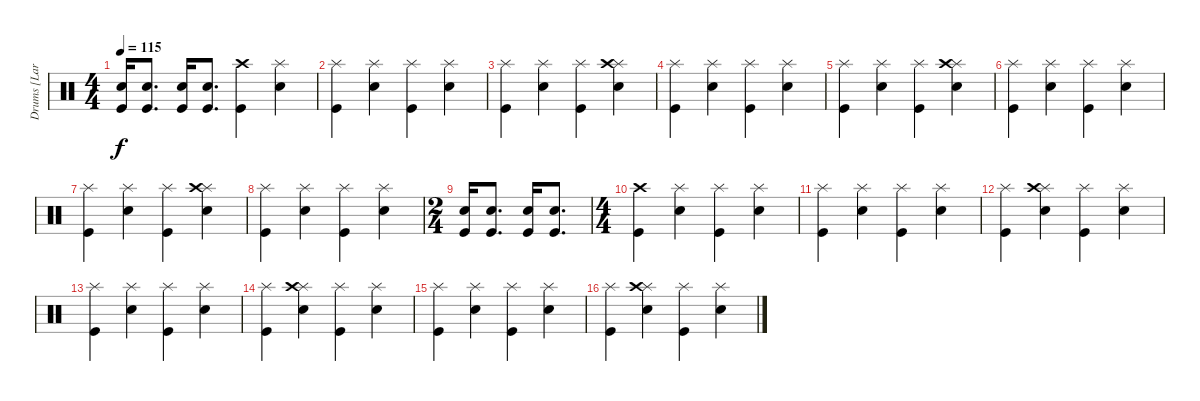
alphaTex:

\track ("Drums [Larz]" "Drums [Lar") {instrument percussion}
\staff {score}
\articulation defaults
\ts (4 4)
\tempo 115
\clef neutral
\ks c
("Kick (hit)" "Electric Snare (hit)").16{dy f} ("Kick (hit)" "Electric Snare (hit)").8{d} ("Kick (hit)" "Electric Snare (hit)").16 ("Kick (hit)" "Electric Snare (hit)").8{d} ("Crash high (hit)" "Kick (hit)").4 ("Splash (hit)" "Snare (hit) 2").4 |
("Splash (hit)" "Kick (hit)").4 ("Splash (hit)" "Snare (hit) 2").4 ("Splash (hit)" "Kick (hit)").4 ("Splash (hit)" "Snare (hit) 2").4 |
("Splash (hit)" "Kick (hit)").4 ("Splash (hit)" "Snare (hit) 2").4 ("Splash (hit)" "Kick (hit)").4 ("Splash (hit)" "Snare (hit) 2" "Crash high (hit)").4 |
("Splash (hit)" "Kick (hit)").4 ("Splash (hit)" "Snare (hit) 2").4 ("Splash (hit)" "Kick (hit)").4 ("Splash (hit)" "Snare (hit) 2").4 |
("Splash (hit)" "Kick (hit)").4 ("Splash (hit)" "Snare (hit) 2").4 ("Splash (hit)" "Kick (hit)").4 ("Splash (hit)" "Snare (hit) 2" "Crash high (hit)").4 |
("Splash (hit)" "Kick (hit)").4 ("Splash (hit)" "Snare (hit) 2").4 ("Splash (hit)" "Kick (hit)").4 ("Splash (hit)" "Snare (hit) 2").4 |
("Splash (hit)" "Kick (hit)").4 ("Splash (hit)" "Snare (hit) 2").4 ("Splash (hit)" "Kick (hit)").4 ("Splash (hit)" "Snare (hit) 2" "Crash high (hit)").4 |
("Splash (hit)" "Kick (hit)").4 ("Splash (hit)" "Snare (hit) 2").4 ("Splash (hit)" "Kick (hit)").4 ("Splash (hit)" "Snare (hit) 2").4 |
\ts (2 4)
("Kick (hit)" "Electric Snare (hit)").16 ("Kick (hit)" "Electric Snare (hit)").8{d} ("Kick (hit)" "Electric Snare (hit)").16 ("Kick (hit)" "Electric Snare (hit)").8{d} |
\ts (4 4)
("Crash high (hit)" "Kick (hit)").4 ("Splash (hit)" "Snare (hit) 2").4 ("Splash (hit)" "Kick (hit)").4 ("Splash (hit)" "Snare (hit) 2").4 |
("Splash (hit)" "Kick (hit)").4 ("Splash (hit)" "Snare (hit) 2").4 ("Splash (hit)" "Kick (hit)").4 ("Splash (hit)" "Snare (hit) 2").4 |
("Splash (hit)" "Kick (hit)").4 ("Splash (hit)" "Snare (hit) 2" "Crash high (hit)").4 ("Splash (hit)" "Kick (hit)").4 ("Splash (hit)" "Snare (hit) 2").4 |
("Splash (hit)" "Kick (hit)").4 ("Splash (hit)" "Snare (hit) 2").4 ("Splash (hit)" "Kick (hit)").4 ("Splash (hit)" "Snare (hit) 2").4 |
("Splash (hit)" "Kick (hit)").4 ("Splash (hit)" "Snare (hit) 2" "Crash high (hit)").4 ("Splash (hit)" "Kick (hit)").4 ("Splash (hit)" "Snare (hit) 2").4 |
("Splash (hit)" "Kick (hit)").4 ("Splash (hit)" "Snare (hit) 2").4 ("Splash (hit)" "Kick (hit)").4 ("Splash (hit)" "Snare (hit) 2").4 |
("Splash (hit)" "Kick (hit)").4 ("Splash (hit)" "Snare (hit) 2" "Crash high (hit)").4 ("Splash (hit)" "Kick (hit)").4 ("Splash (hit)" "Snare (hit) 2").4
